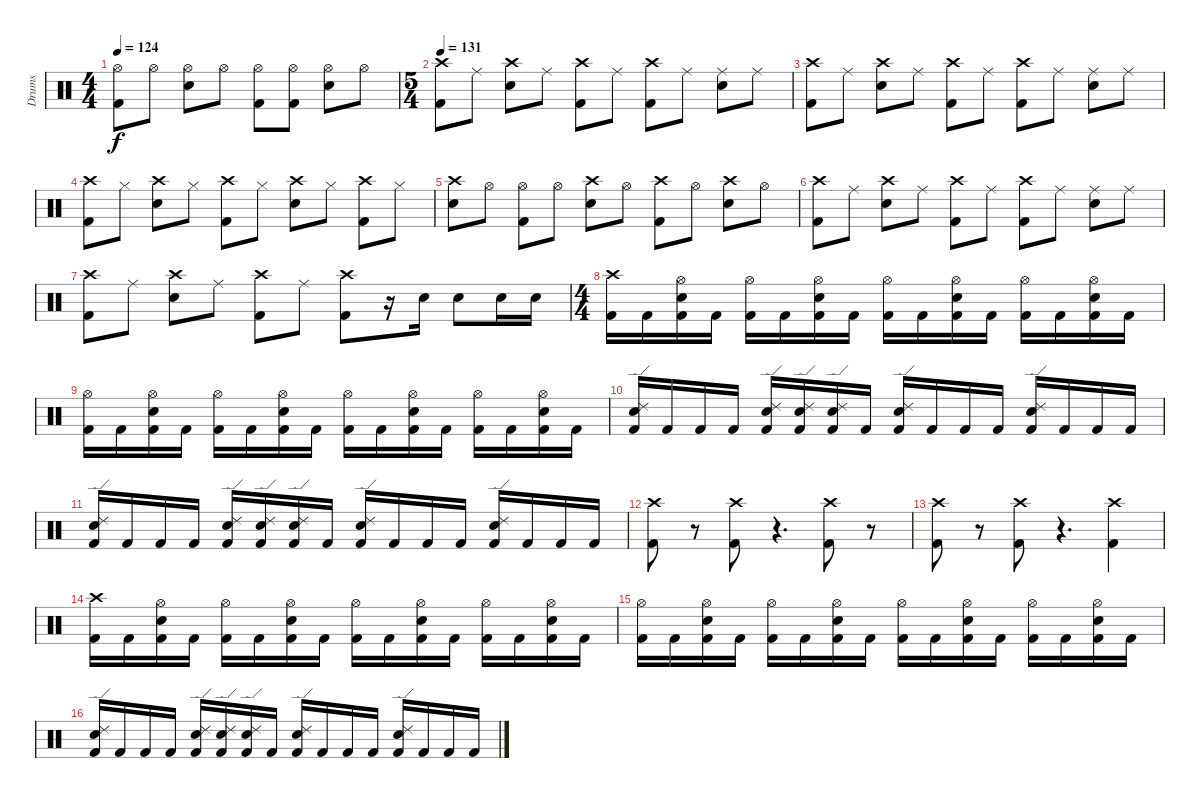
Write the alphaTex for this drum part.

\track ("Drums" "Drums") {instrument percussion}
\staff {score}
\articulation defaults
\ts (4 4)
\tempo 124
\clef neutral
\ks c
("Hi-Hat (open)" "Kick (hit) 2").8{dy f} "Hi-Hat (open)".8 ("Hi-Hat (open)" "Electric Snare (hit)").8 "Hi-Hat (open)".8 ("Hi-Hat (open)" "Kick (hit) 2").8 ("Hi-Hat (open)" "Kick (hit) 2").8 ("Hi-Hat (open)" "Electric Snare (hit)").8 "Hi-Hat (open)".8 |
\ts (5 4)
\tempo 131
("Crash high (hit)" "Kick (hit) 2").8 "Ride (middle)".8 ("Crash high (hit)" "Electric Snare (hit)").8 "Ride (middle)".8 ("Crash high (hit)" "Kick (hit) 2").8 "Ride (middle)".8 ("Crash high (hit)" "Kick (hit) 2").8 "Ride (middle)".8 ("Ride (middle)" "Electric Snare (hit)").8 "Ride (middle)".8 |
("Crash high (hit)" "Kick (hit) 2").8 "Ride (middle)".8 ("Crash high (hit)" "Electric Snare (hit)").8 "Ride (middle)".8 ("Crash high (hit)" "Kick (hit) 2").8 "Ride (middle)".8 ("Crash high (hit)" "Kick (hit) 2").8 "Ride (middle)".8 ("Ride (middle)" "Electric Snare (hit)").8 "Ride (middle)".8 |
("Crash high (hit)" "Kick (hit) 2").8 "Hi-Hat (closed)".8 ("Crash high (hit)" "Electric Snare (hit)").8 "Hi-Hat (closed)".8 ("Crash high (hit)" "Kick (hit) 2").8 "Hi-Hat (closed)".8 ("Crash high (hit)" "Electric Snare (hit)").8 "Hi-Hat (closed)".8 ("Crash high (hit)" "Kick (hit) 2").8 "Hi-Hat (closed)".8 |
("Crash high (hit)" "Electric Snare (hit)").8 "Hi-Hat (open)".8 ("Hi-Hat (open)" "Kick (hit) 2").8 "Hi-Hat (open)".8 ("Crash high (hit)" "Electric Snare (hit)").8 "Hi-Hat (open)".8 ("Crash high (hit)" "Kick (hit) 2").8 "Hi-Hat (open)".8 ("Crash high (hit)" "Electric Snare (hit)").8 "Hi-Hat (open)".8 |
("Crash high (hit)" "Kick (hit) 2").8 "Ride (middle)".8 ("Crash high (hit)" "Electric Snare (hit)").8 "Ride (middle)".8 ("Crash high (hit)" "Kick (hit) 2").8 "Ride (middle)".8 ("Crash high (hit)" "Kick (hit) 2").8 "Ride (middle)".8 ("Ride (middle)" "Electric Snare (hit)").8 "Ride (middle)".8 |
("Crash high (hit)" "Kick (hit) 2").8 "Ride (middle)".8 ("Crash high (hit)" "Electric Snare (hit)").8 "Ride (middle)".8 ("Crash high (hit)" "Kick (hit) 2").8 "Ride (middle)".8 ("Crash high (hit)" "Kick (hit) 2").8 r.16 "Electric Snare (hit)".16 "Electric Snare (hit)".8 "Electric Snare (hit)".16 "Electric Snare (hit)".16 |
\ts (4 4)
("Crash high (hit)" "Kick (hit) 2").16 "Kick (hit) 2".16 ("Hi-Hat (open)" "Electric Snare (hit)" "Kick (hit) 2").16 "Kick (hit) 2".16 ("Hi-Hat (open)" "Kick (hit) 2").16 "Kick (hit) 2".16 ("Hi-Hat (open)" "Electric Snare (hit)" "Kick (hit) 2").16 "Kick (hit) 2".16 ("Hi-Hat (open)" "Kick (hit) 2").16 "Kick (hit) 2".16 ("Hi-Hat (open)" "Electric Snare (hit)" "Kick (hit) 2").16 "Kick (hit) 2".16 ("Hi-Hat (open)" "Kick (hit) 2").16 "Kick (hit) 2".16 ("Hi-Hat (open)" "Electric Snare (hit)" "Kick (hit) 2").16 "Kick (hit) 2".16 |
("Hi-Hat (open)" "Kick (hit) 2").16 "Kick (hit) 2".16 ("Hi-Hat (open)" "Electric Snare (hit)" "Kick (hit) 2").16 "Kick (hit) 2".16 ("Hi-Hat (open)" "Kick (hit) 2").16 "Kick (hit) 2".16 ("Hi-Hat (open)" "Electric Snare (hit)" "Kick (hit) 2").16 "Kick (hit) 2".16 ("Hi-Hat (open)" "Kick (hit) 2").16 "Kick (hit) 2".16 ("Hi-Hat (open)" "Electric Snare (hit)" "Kick (hit) 2").16 "Kick (hit) 2".16 ("Hi-Hat (open)" "Kick (hit) 2").16 "Kick (hit) 2".16 ("Hi-Hat (open)" "Electric Snare (hit)" "Kick (hit) 2").16 "Kick (hit) 2".16 |
("Ride (edge) 2" "Electric Snare (hit)" "Kick (hit) 2").16 "Kick (hit) 2".16 "Kick (hit) 2".16 "Kick (hit) 2".16 ("Ride (edge) 2" "Electric Snare (hit)" "Kick (hit) 2").16 ("Ride (edge) 2" "Electric Snare (hit)" "Kick (hit) 2").16{volume 11} ("Ride (edge) 2" "Electric Snare (hit)" "Kick (hit) 2").16{volume 9} "Kick (hit) 2".16 ("Ride (edge) 2" "Electric Snare (hit)" "Kick (hit) 2").16{volume 13} "Kick (hit) 2".16 "Kick (hit) 2".16 "Kick (hit) 2".16 ("Ride (edge) 2" "Electric Snare (hit)" "Kick (hit) 2").16 "Kick (hit) 2".16 "Kick (hit) 2".16 "Kick (hit) 2".16 |
("Ride (edge) 2" "Electric Snare (hit)" "Kick (hit) 2").16 "Kick (hit) 2".16 "Kick (hit) 2".16 "Kick (hit) 2".16 ("Ride (edge) 2" "Electric Snare (hit)" "Kick (hit) 2").16 ("Ride (edge) 2" "Electric Snare (hit)" "Kick (hit) 2").16{volume 11} ("Ride (edge) 2" "Electric Snare (hit)" "Kick (hit) 2").16{volume 9} "Kick (hit) 2".16 ("Ride (edge) 2" "Electric Snare (hit)" "Kick (hit) 2").16{volume 13} "Kick (hit) 2".16 "Kick (hit) 2".16 "Kick (hit) 2".16 ("Ride (edge) 2" "Electric Snare (hit)" "Kick (hit) 2").16 "Kick (hit) 2".16 "Kick (hit) 2".16 "Kick (hit) 2".16 |
("Crash high (hit)" "Kick (hit) 2").8 r.8 ("Crash high (hit)" "Kick (hit) 2").8 r.4{d} ("Crash high (hit)" "Kick (hit) 2").8 r.8 |
("Crash high (hit)" "Kick (hit) 2").8 r.8 ("Crash high (hit)" "Kick (hit) 2").8 r.4{d} ("Crash high (hit)" "Kick (hit) 2").4 |
("Crash high (hit)" "Kick (hit) 2").16 "Kick (hit) 2".16 ("Hi-Hat (open)" "Electric Snare (hit)" "Kick (hit) 2").16 "Kick (hit) 2".16 ("Hi-Hat (open)" "Kick (hit) 2").16 "Kick (hit) 2".16 ("Hi-Hat (open)" "Electric Snare (hit)" "Kick (hit) 2").16 "Kick (hit) 2".16 ("Hi-Hat (open)" "Kick (hit) 2").16 "Kick (hit) 2".16 ("Hi-Hat (open)" "Electric Snare (hit)" "Kick (hit) 2").16 "Kick (hit) 2".16 ("Hi-Hat (open)" "Kick (hit) 2").16 "Kick (hit) 2".16 ("Hi-Hat (open)" "Electric Snare (hit)" "Kick (hit) 2").16 "Kick (hit) 2".16 |
("Hi-Hat (open)" "Kick (hit) 2").16 "Kick (hit) 2".16 ("Hi-Hat (open)" "Electric Snare (hit)" "Kick (hit) 2").16 "Kick (hit) 2".16 ("Hi-Hat (open)" "Kick (hit) 2").16 "Kick (hit) 2".16 ("Hi-Hat (open)" "Electric Snare (hit)" "Kick (hit) 2").16 "Kick (hit) 2".16 ("Hi-Hat (open)" "Kick (hit) 2").16 "Kick (hit) 2".16 ("Hi-Hat (open)" "Electric Snare (hit)" "Kick (hit) 2").16 "Kick (hit) 2".16 ("Hi-Hat (open)" "Kick (hit) 2").16 "Kick (hit) 2".16 ("Hi-Hat (open)" "Electric Snare (hit)" "Kick (hit) 2").16 "Kick (hit) 2".16 |
("Ride (edge) 2" "Electric Snare (hit)" "Kick (hit) 2").16 "Kick (hit) 2".16 "Kick (hit) 2".16 "Kick (hit) 2".16 ("Ride (edge) 2" "Electric Snare (hit)" "Kick (hit) 2").16 ("Ride (edge) 2" "Electric Snare (hit)" "Kick (hit) 2").16{volume 11} ("Ride (edge) 2" "Electric Snare (hit)" "Kick (hit) 2").16{volume 9} "Kick (hit) 2".16 ("Ride (edge) 2" "Electric Snare (hit)" "Kick (hit) 2").16{volume 13} "Kick (hit) 2".16 "Kick (hit) 2".16 "Kick (hit) 2".16 ("Ride (edge) 2" "Electric Snare (hit)" "Kick (hit) 2").16 "Kick (hit) 2".16 "Kick (hit) 2".16 "Kick (hit) 2".16
